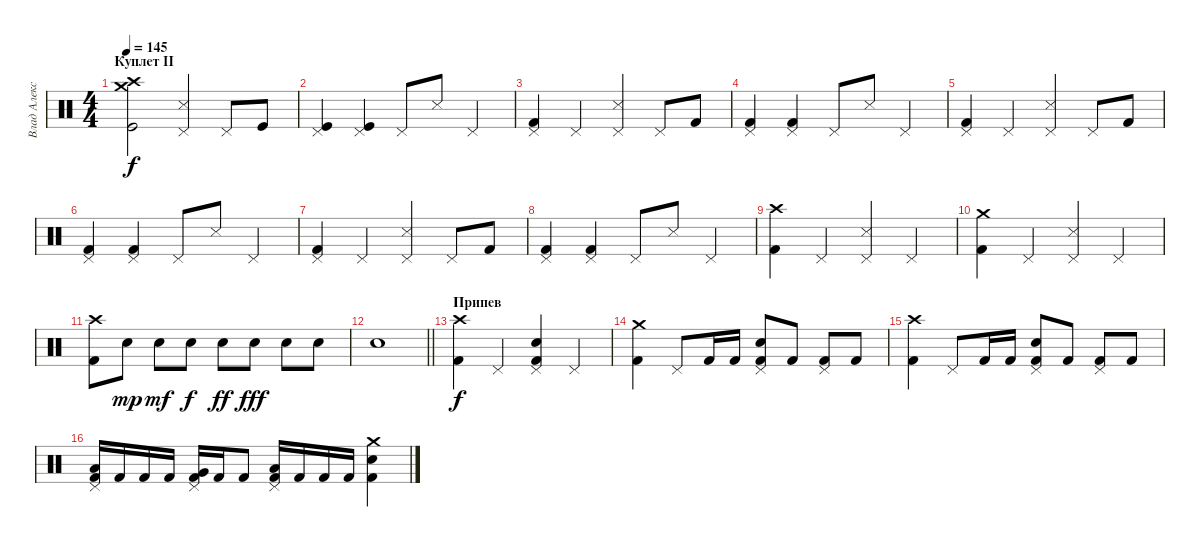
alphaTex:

\track ("Влад Алексеенко" "Влад Алекс") {instrument percussion}
\staff {score}
\articulation defaults
\ts (4 4)
\section ("" "Куплет II")
\tempo 145
\clef neutral
\ks c
("Crash medium (hit)" "Crash high (hit)" "Kick (hit)").2{dy f} ("Pedal Hi-Hat (hit)" "Metronome (hit)").4 "Pedal Hi-Hat (hit)".8 "Kick (hit)".8 |
("Pedal Hi-Hat (hit)" "Kick (hit)").4 ("Pedal Hi-Hat (hit)" "Kick (hit)").4 "Pedal Hi-Hat (hit)".8 "Metronome (hit)".8 "Pedal Hi-Hat (hit)".4 |
("Pedal Hi-Hat (hit)" "Kick (hit) 2").4 "Pedal Hi-Hat (hit)".4 ("Pedal Hi-Hat (hit)" "Metronome (hit)").4 "Pedal Hi-Hat (hit)".8 "Kick (hit) 2".8 |
("Pedal Hi-Hat (hit)" "Kick (hit) 2").4 ("Pedal Hi-Hat (hit)" "Kick (hit) 2").4 "Pedal Hi-Hat (hit)".8 "Metronome (hit)".8 "Pedal Hi-Hat (hit)".4 |
("Pedal Hi-Hat (hit)" "Kick (hit) 2").4 "Pedal Hi-Hat (hit)".4 ("Pedal Hi-Hat (hit)" "Metronome (hit)").4 "Pedal Hi-Hat (hit)".8 "Kick (hit) 2".8 |
("Pedal Hi-Hat (hit)" "Kick (hit) 2").4 ("Pedal Hi-Hat (hit)" "Kick (hit) 2").4 "Pedal Hi-Hat (hit)".8 "Metronome (hit)".8 "Pedal Hi-Hat (hit)".4 |
("Pedal Hi-Hat (hit)" "Kick (hit) 2").4 "Pedal Hi-Hat (hit)".4 ("Pedal Hi-Hat (hit)" "Metronome (hit)").4 "Pedal Hi-Hat (hit)".8 "Kick (hit) 2".8 |
("Pedal Hi-Hat (hit)" "Kick (hit) 2").4 ("Pedal Hi-Hat (hit)" "Kick (hit) 2").4 "Pedal Hi-Hat (hit)".8 "Metronome (hit)".8 "Pedal Hi-Hat (hit)".4 |
("Crash high (hit)" "Kick (hit) 2").4 "Pedal Hi-Hat (hit)".4 ("Pedal Hi-Hat (hit)" "Metronome (hit)").4 "Pedal Hi-Hat (hit)".4 |
("Crash medium (hit)" "Kick (hit) 2").4 "Pedal Hi-Hat (hit)".4 ("Pedal Hi-Hat (hit)" "Metronome (hit)").4 "Pedal Hi-Hat (hit)".4 |
("Crash high (hit)" "Kick (hit) 2").8 "Electric Snare (hit)".8{dy mp} "Electric Snare (hit)".8{dy mf} "Electric Snare (hit)".8{dy f} "Electric Snare (hit)".8{dy ff} "Electric Snare (hit)".8{dy fff} "Electric Snare (hit)".8 "Electric Snare (hit)".8 |
\barLineRight lightlight "Electric Snare (hit)".1
|
\section ("" "Припев")
("Crash high (hit)" "Kick (hit) 2").4{dy f} "Pedal Hi-Hat (hit)".4 ("Pedal Hi-Hat (hit)" "Electric Snare (hit)" "Kick (hit) 2").4 "Pedal Hi-Hat (hit)".4 |
("Crash medium (hit)" "Kick (hit) 2").4 "Pedal Hi-Hat (hit)".8 "Kick (hit) 2".16 "Kick (hit) 2".16 ("Pedal Hi-Hat (hit)" "Electric Snare (hit)" "Kick (hit) 2").8 "Kick (hit) 2".8 ("Pedal Hi-Hat (hit)" "Kick (hit) 2").8 "Kick (hit) 2".8 |
("Crash high (hit)" "Kick (hit) 2").4 "Pedal Hi-Hat (hit)".8 "Kick (hit) 2".16 "Kick (hit) 2".16 ("Pedal Hi-Hat (hit)" "Electric Snare (hit)" "Kick (hit) 2").8 "Kick (hit) 2".8 ("Pedal Hi-Hat (hit)" "Kick (hit) 2").8 "Kick (hit) 2".8 |
("Low Tom (hit)" "Kick (hit) 2" "Pedal Hi-Hat (hit)").16 "Kick (hit) 2".16 "Kick (hit) 2".16 "Kick (hit) 2".16 ("Very Low Tom (hit)" "Kick (hit) 2" "Pedal Hi-Hat (hit)").16 "Kick (hit) 2".16 "Kick (hit) 2".8 ("Low Floor Tom (hit)" "Kick (hit) 2" "Pedal Hi-Hat (hit)").16 "Kick (hit) 2".16 "Kick (hit) 2".16 "Kick (hit) 2".16 ("Crash medium (hit)" "Electric Snare (hit)" "Kick (hit) 2").4
